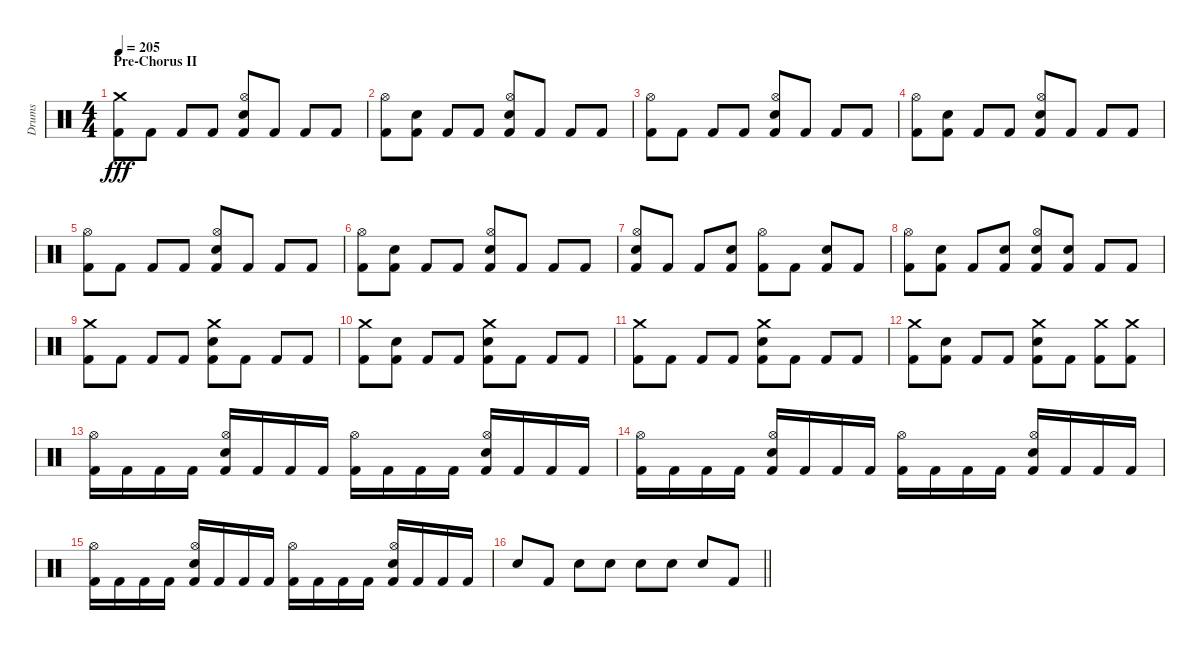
\track ("Drums" "Drums") {instrument percussion}
\staff {score}
\articulation defaults
\ts (4 4)
\section ("" "Pre-Chorus II")
\tempo 205
\clef neutral
\ks c
("Crash medium (hit)" "Kick (hit) 2").8{dy fff} "Kick (hit) 2".8 "Kick (hit) 2".8 "Kick (hit) 2".8 ("Hi-Hat (open)" "Snare (hit) 2" "Kick (hit) 2").8 "Kick (hit) 2".8 "Kick (hit) 2".8 "Kick (hit) 2".8 |
("Hi-Hat (open)" "Kick (hit) 2").8 ("Snare (hit) 2" "Kick (hit) 2").8 "Kick (hit) 2".8 "Kick (hit) 2".8 ("Hi-Hat (open)" "Snare (hit) 2" "Kick (hit) 2").8 "Kick (hit) 2".8 "Kick (hit) 2".8 "Kick (hit) 2".8 |
("Hi-Hat (open)" "Kick (hit) 2").8 "Kick (hit) 2".8 "Kick (hit) 2".8 "Kick (hit) 2".8 ("Hi-Hat (open)" "Snare (hit) 2" "Kick (hit) 2").8 "Kick (hit) 2".8 "Kick (hit) 2".8 "Kick (hit) 2".8 |
("Hi-Hat (open)" "Kick (hit) 2").8 ("Snare (hit) 2" "Kick (hit) 2").8 "Kick (hit) 2".8 "Kick (hit) 2".8 ("Hi-Hat (open)" "Snare (hit) 2" "Kick (hit) 2").8 "Kick (hit) 2".8 "Kick (hit) 2".8 "Kick (hit) 2".8 |
("Hi-Hat (open)" "Kick (hit) 2").8 "Kick (hit) 2".8 "Kick (hit) 2".8 "Kick (hit) 2".8 ("Hi-Hat (open)" "Snare (hit) 2" "Kick (hit) 2").8 "Kick (hit) 2".8 "Kick (hit) 2".8 "Kick (hit) 2".8 |
("Hi-Hat (open)" "Kick (hit) 2").8 ("Snare (hit) 2" "Kick (hit) 2").8 "Kick (hit) 2".8 "Kick (hit) 2".8 ("Hi-Hat (open)" "Snare (hit) 2" "Kick (hit) 2").8 "Kick (hit) 2".8 "Kick (hit) 2".8 "Kick (hit) 2".8 |
("Hi-Hat (open)" "Snare (hit) 2" "Kick (hit) 2").8 "Kick (hit) 2".8 "Kick (hit) 2".8 ("Snare (hit) 2" "Kick (hit) 2").8 ("Hi-Hat (open)" "Kick (hit) 2").8 "Kick (hit) 2".8 ("Snare (hit) 2" "Kick (hit) 2").8 "Kick (hit) 2".8 |
("Hi-Hat (open)" "Kick (hit) 2").8 ("Snare (hit) 2" "Kick (hit) 2").8 "Kick (hit) 2".8 ("Snare (hit) 2" "Kick (hit) 2").8 ("Hi-Hat (open)" "Snare (hit) 2" "Kick (hit) 2").8 ("Snare (hit) 2" "Kick (hit) 2").8 "Kick (hit) 2".8 "Kick (hit) 2".8 |
("Crash medium (hit)" "Kick (hit) 2").8 "Kick (hit) 2".8 "Kick (hit) 2".8 "Kick (hit) 2".8 ("Crash medium (hit)" "Snare (hit) 2" "Kick (hit) 2").8 "Kick (hit) 2".8 "Kick (hit) 2".8 "Kick (hit) 2".8 |
("Crash medium (hit)" "Kick (hit) 2").8 ("Snare (hit) 2" "Kick (hit) 2").8 "Kick (hit) 2".8 "Kick (hit) 2".8 ("Crash medium (hit)" "Snare (hit) 2" "Kick (hit) 2").8 "Kick (hit) 2".8 "Kick (hit) 2".8 "Kick (hit) 2".8 |
("Crash medium (hit)" "Kick (hit) 2").8 "Kick (hit) 2".8 "Kick (hit) 2".8 "Kick (hit) 2".8 ("Crash medium (hit)" "Snare (hit) 2" "Kick (hit) 2").8 "Kick (hit) 2".8 "Kick (hit) 2".8 "Kick (hit) 2".8 |
("Crash medium (hit)" "Kick (hit) 2").8 ("Snare (hit) 2" "Kick (hit) 2").8 "Kick (hit) 2".8 "Kick (hit) 2".8 ("Crash medium (hit)" "Snare (hit) 2" "Kick (hit) 2").8 "Kick (hit) 2".8 ("Crash medium (hit)" "Kick (hit) 2").8 ("Crash medium (hit)" "Kick (hit) 2").8 |
("Hi-Hat (open)" "Kick (hit) 2").16 "Kick (hit) 2".16 "Kick (hit) 2".16 "Kick (hit) 2".16 ("Hi-Hat (open)" "Snare (hit) 2" "Kick (hit) 2").16 "Kick (hit) 2".16 "Kick (hit) 2".16 "Kick (hit) 2".16 ("Hi-Hat (open)" "Kick (hit) 2").16 "Kick (hit) 2".16 "Kick (hit) 2".16 "Kick (hit) 2".16 ("Hi-Hat (open)" "Snare (hit) 2" "Kick (hit) 2").16 "Kick (hit) 2".16 "Kick (hit) 2".16 "Kick (hit) 2".16 |
("Hi-Hat (open)" "Kick (hit) 2").16 "Kick (hit) 2".16 "Kick (hit) 2".16 "Kick (hit) 2".16 ("Hi-Hat (open)" "Snare (hit) 2" "Kick (hit) 2").16 "Kick (hit) 2".16 "Kick (hit) 2".16 "Kick (hit) 2".16 ("Hi-Hat (open)" "Kick (hit) 2").16 "Kick (hit) 2".16 "Kick (hit) 2".16 "Kick (hit) 2".16 ("Hi-Hat (open)" "Snare (hit) 2" "Kick (hit) 2").16 "Kick (hit) 2".16 "Kick (hit) 2".16 "Kick (hit) 2".16 |
("Hi-Hat (open)" "Kick (hit) 2").16 "Kick (hit) 2".16 "Kick (hit) 2".16 "Kick (hit) 2".16 ("Hi-Hat (open)" "Snare (hit) 2" "Kick (hit) 2").16 "Kick (hit) 2".16 "Kick (hit) 2".16 "Kick (hit) 2".16 ("Hi-Hat (open)" "Kick (hit) 2").16 "Kick (hit) 2".16 "Kick (hit) 2".16 "Kick (hit) 2".16 ("Hi-Hat (open)" "Snare (hit) 2" "Kick (hit) 2").16 "Kick (hit) 2".16 "Kick (hit) 2".16 "Kick (hit) 2".16 |
\barLineRight lightlight "Snare (hit) 2".8 "Kick (hit) 2".8 "Snare (hit) 2".8 "Snare (hit) 2".8 "Snare (hit) 2".8 "Snare (hit) 2".8 "Snare (hit) 2".8 "Kick (hit) 2".8
